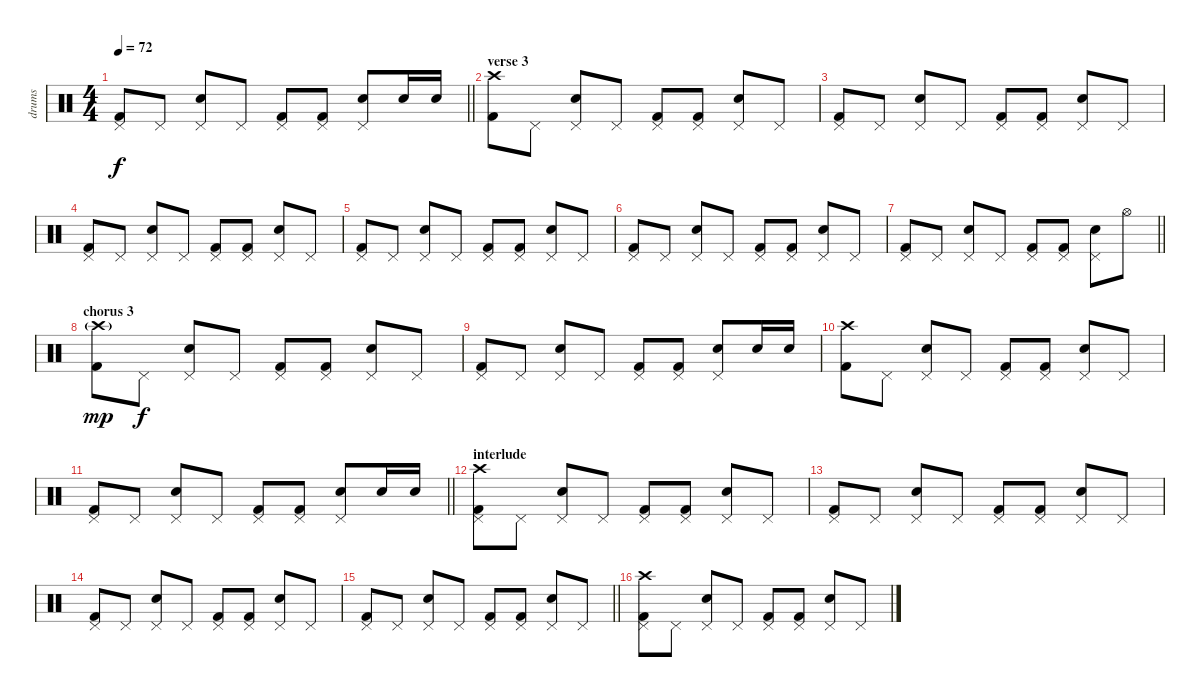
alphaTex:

\track ("drums" "drums") {instrument percussion}
\staff {score}
\articulation defaults
\ts (4 4)
\tempo 72
\clef neutral
\barLineRight lightlight
\ks c
("Kick (hit) 2" "Pedal Hi-Hat (hit)").8{dy f} "Pedal Hi-Hat (hit)".8 ("Electric Snare (hit)" "Pedal Hi-Hat (hit)").8 "Pedal Hi-Hat (hit)".8 ("Kick (hit) 2" "Pedal Hi-Hat (hit)").8 ("Kick (hit) 2" "Pedal Hi-Hat (hit)").8 ("Electric Snare (hit)" "Pedal Hi-Hat (hit)").8 "Electric Snare (hit)".16 "Electric Snare (hit)".16 |
\section ("" "verse 3")
("Kick (hit) 2" "Crash high (hit)").8 "Pedal Hi-Hat (hit)".8 ("Electric Snare (hit)" "Pedal Hi-Hat (hit)").8 "Pedal Hi-Hat (hit)".8 ("Kick (hit) 2" "Pedal Hi-Hat (hit)").8 ("Kick (hit) 2" "Pedal Hi-Hat (hit)").8 ("Electric Snare (hit)" "Pedal Hi-Hat (hit)").8 "Pedal Hi-Hat (hit)".8 |
("Kick (hit) 2" "Pedal Hi-Hat (hit)").8 "Pedal Hi-Hat (hit)".8 ("Electric Snare (hit)" "Pedal Hi-Hat (hit)").8 "Pedal Hi-Hat (hit)".8 ("Kick (hit) 2" "Pedal Hi-Hat (hit)").8 ("Kick (hit) 2" "Pedal Hi-Hat (hit)").8 ("Electric Snare (hit)" "Pedal Hi-Hat (hit)").8 "Pedal Hi-Hat (hit)".8 |
("Kick (hit) 2" "Pedal Hi-Hat (hit)").8 "Pedal Hi-Hat (hit)".8 ("Electric Snare (hit)" "Pedal Hi-Hat (hit)").8 "Pedal Hi-Hat (hit)".8 ("Kick (hit) 2" "Pedal Hi-Hat (hit)").8 ("Kick (hit) 2" "Pedal Hi-Hat (hit)").8 ("Electric Snare (hit)" "Pedal Hi-Hat (hit)").8 "Pedal Hi-Hat (hit)".8 |
("Kick (hit) 2" "Pedal Hi-Hat (hit)").8 "Pedal Hi-Hat (hit)".8 ("Electric Snare (hit)" "Pedal Hi-Hat (hit)").8 "Pedal Hi-Hat (hit)".8 ("Kick (hit) 2" "Pedal Hi-Hat (hit)").8 ("Kick (hit) 2" "Pedal Hi-Hat (hit)").8 ("Electric Snare (hit)" "Pedal Hi-Hat (hit)").8 "Pedal Hi-Hat (hit)".8 |
("Kick (hit) 2" "Pedal Hi-Hat (hit)").8 "Pedal Hi-Hat (hit)".8 ("Electric Snare (hit)" "Pedal Hi-Hat (hit)").8 "Pedal Hi-Hat (hit)".8 ("Kick (hit) 2" "Pedal Hi-Hat (hit)").8 ("Kick (hit) 2" "Pedal Hi-Hat (hit)").8 ("Electric Snare (hit)" "Pedal Hi-Hat (hit)").8 "Pedal Hi-Hat (hit)".8 |
\barLineRight lightlight
("Kick (hit) 2" "Pedal Hi-Hat (hit)").8 "Pedal Hi-Hat (hit)".8 ("Electric Snare (hit)" "Pedal Hi-Hat (hit)").8 "Pedal Hi-Hat (hit)".8 ("Kick (hit) 2" "Pedal Hi-Hat (hit)").8 ("Kick (hit) 2" "Pedal Hi-Hat (hit)").8 ("Electric Snare (hit)" "Pedal Hi-Hat (hit)").8 "Hi-Hat (open)".8 |
\section ("" "chorus 3")
("Kick (hit) 2" "Crash high (hit)"{g}).8{dy mp} "Pedal Hi-Hat (hit)".8{dy f} ("Electric Snare (hit)" "Pedal Hi-Hat (hit)").8 "Pedal Hi-Hat (hit)".8 ("Kick (hit) 2" "Pedal Hi-Hat (hit)").8 ("Kick (hit) 2" "Pedal Hi-Hat (hit)").8 ("Electric Snare (hit)" "Pedal Hi-Hat (hit)").8 "Pedal Hi-Hat (hit)".8 |
("Kick (hit) 2" "Pedal Hi-Hat (hit)").8 "Pedal Hi-Hat (hit)".8 ("Electric Snare (hit)" "Pedal Hi-Hat (hit)").8 "Pedal Hi-Hat (hit)".8 ("Kick (hit) 2" "Pedal Hi-Hat (hit)").8 ("Kick (hit) 2" "Pedal Hi-Hat (hit)").8 ("Electric Snare (hit)" "Pedal Hi-Hat (hit)").8 "Electric Snare (hit)".16 "Electric Snare (hit)".16 |
("Kick (hit) 2" "Crash high (hit)").8 "Pedal Hi-Hat (hit)".8 ("Electric Snare (hit)" "Pedal Hi-Hat (hit)").8 "Pedal Hi-Hat (hit)".8 ("Kick (hit) 2" "Pedal Hi-Hat (hit)").8 ("Kick (hit) 2" "Pedal Hi-Hat (hit)").8 ("Electric Snare (hit)" "Pedal Hi-Hat (hit)").8 "Pedal Hi-Hat (hit)".8 |
\barLineRight lightlight
("Kick (hit) 2" "Pedal Hi-Hat (hit)").8 "Pedal Hi-Hat (hit)".8 ("Electric Snare (hit)" "Pedal Hi-Hat (hit)").8 "Pedal Hi-Hat (hit)".8 ("Kick (hit) 2" "Pedal Hi-Hat (hit)").8 ("Kick (hit) 2" "Pedal Hi-Hat (hit)").8 ("Electric Snare (hit)" "Pedal Hi-Hat (hit)").8 "Electric Snare (hit)".16 "Electric Snare (hit)".16 |
\section ("" "interlude")
("Kick (hit) 2" "Pedal Hi-Hat (hit)" "Crash high (hit)").8 "Pedal Hi-Hat (hit)".8 ("Electric Snare (hit)" "Pedal Hi-Hat (hit)").8 "Pedal Hi-Hat (hit)".8 ("Kick (hit) 2" "Pedal Hi-Hat (hit)").8 ("Kick (hit) 2" "Pedal Hi-Hat (hit)").8 ("Electric Snare (hit)" "Pedal Hi-Hat (hit)").8 "Pedal Hi-Hat (hit)".8 |
("Kick (hit) 2" "Pedal Hi-Hat (hit)").8 "Pedal Hi-Hat (hit)".8 ("Electric Snare (hit)" "Pedal Hi-Hat (hit)").8 "Pedal Hi-Hat (hit)".8 ("Kick (hit) 2" "Pedal Hi-Hat (hit)").8 ("Kick (hit) 2" "Pedal Hi-Hat (hit)").8 ("Electric Snare (hit)" "Pedal Hi-Hat (hit)").8 "Pedal Hi-Hat (hit)".8 |
("Kick (hit) 2" "Pedal Hi-Hat (hit)").8 "Pedal Hi-Hat (hit)".8 ("Electric Snare (hit)" "Pedal Hi-Hat (hit)").8 "Pedal Hi-Hat (hit)".8 ("Kick (hit) 2" "Pedal Hi-Hat (hit)").8 ("Kick (hit) 2" "Pedal Hi-Hat (hit)").8 ("Electric Snare (hit)" "Pedal Hi-Hat (hit)").8 "Pedal Hi-Hat (hit)".8 |
\barLineRight lightlight
("Kick (hit) 2" "Pedal Hi-Hat (hit)").8 "Pedal Hi-Hat (hit)".8 ("Electric Snare (hit)" "Pedal Hi-Hat (hit)").8 "Pedal Hi-Hat (hit)".8 ("Kick (hit) 2" "Pedal Hi-Hat (hit)").8 ("Kick (hit) 2" "Pedal Hi-Hat (hit)").8 ("Electric Snare (hit)" "Pedal Hi-Hat (hit)").8 "Pedal Hi-Hat (hit)".8 |
("Kick (hit) 2" "Pedal Hi-Hat (hit)" "Crash high (hit)").8 "Pedal Hi-Hat (hit)".8 ("Electric Snare (hit)" "Pedal Hi-Hat (hit)").8 "Pedal Hi-Hat (hit)".8 ("Kick (hit) 2" "Pedal Hi-Hat (hit)").8 ("Kick (hit) 2" "Pedal Hi-Hat (hit)").8 ("Electric Snare (hit)" "Pedal Hi-Hat (hit)").8 "Pedal Hi-Hat (hit)".8
